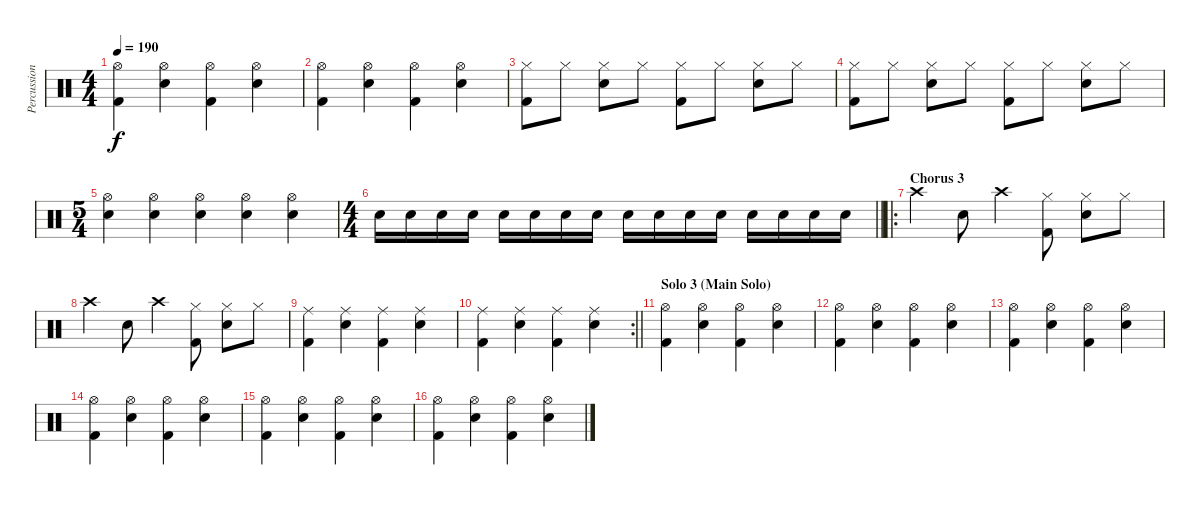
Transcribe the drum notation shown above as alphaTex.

\track ("Percussion" "Percussion") {instrument percussion}
\staff {score}
\articulation defaults
\ts (4 4)
\tempo 190
\clef neutral
\ks c
("Hi-Hat (open)" "Kick (hit) 2").4{dy f} ("Hi-Hat (open)" "Snare (hit) 2").4 ("Hi-Hat (open)" "Kick (hit) 2").4 ("Hi-Hat (open)" "Snare (hit) 2").4 |
("Hi-Hat (open)" "Kick (hit) 2").4 ("Hi-Hat (open)" "Snare (hit) 2").4 ("Hi-Hat (open)" "Kick (hit) 2").4 ("Hi-Hat (open)" "Snare (hit) 2").4 |
("Hi-Hat (closed)" "Kick (hit) 2").8 "Hi-Hat (closed)".8 ("Hi-Hat (closed)" "Snare (hit) 2").8 "Hi-Hat (closed)".8 ("Hi-Hat (closed)" "Kick (hit) 2").8 "Hi-Hat (closed)".8 ("Hi-Hat (closed)" "Snare (hit) 2").8 "Hi-Hat (closed)".8 |
("Hi-Hat (closed)" "Kick (hit) 2").8 "Hi-Hat (closed)".8 ("Hi-Hat (closed)" "Snare (hit) 2").8 "Hi-Hat (closed)".8 ("Hi-Hat (closed)" "Kick (hit) 2").8 "Hi-Hat (closed)".8 ("Hi-Hat (closed)" "Snare (hit) 2").8 "Hi-Hat (closed)".8 |
\ts (5 4)
("Hi-Hat (open)" "Snare (hit) 2").4 ("Hi-Hat (open)" "Snare (hit) 2").4 ("Hi-Hat (open)" "Snare (hit) 2").4 ("Hi-Hat (open)" "Snare (hit) 2").4 ("Hi-Hat (open)" "Snare (hit) 2").4 |
\ts (4 4)
\barLineRight lightlight "Snare (hit) 2".16 "Snare (hit) 2".16 "Snare (hit) 2".16 "Snare (hit) 2".16 "Snare (hit) 2".16 "Snare (hit) 2".16 "Snare (hit) 2".16 "Snare (hit) 2".16 "Snare (hit) 2".16 "Snare (hit) 2".16 "Snare (hit) 2".16 "Snare (hit) 2".16 "Snare (hit) 2".16 "Snare (hit) 2".16 "Snare (hit) 2".16 "Snare (hit) 2".16
|
\ro
\section ("" "Chorus 3")
"Crash high (hit)".4 "Snare (hit) 2".8 "Crash high (hit)".4 ("Hi-Hat (closed)" "Kick (hit) 2").8 ("Hi-Hat (closed)" "Snare (hit) 2").8 "Hi-Hat (closed)".8 |
"Crash high (hit)".4 "Snare (hit) 2".8 "Crash high (hit)".4 ("Hi-Hat (closed)" "Kick (hit) 2").8 ("Hi-Hat (closed)" "Snare (hit) 2").8 "Hi-Hat (closed)".8 |
("Ride (middle)" "Kick (hit) 2").4 ("Ride (middle)" "Snare (hit) 2").4 ("Ride (middle)" "Kick (hit) 2").4 ("Ride (middle)" "Snare (hit) 2").4 |
\rc 2
\barLineRight lightlight
("Ride (middle)" "Kick (hit) 2").4 ("Ride (middle)" "Snare (hit) 2").4 ("Ride (middle)" "Kick (hit) 2").4 ("Ride (middle)" "Snare (hit) 2").4 |
\section ("" "Solo 3 (Main Solo)")
("Hi-Hat (open)" "Kick (hit) 2").4 ("Hi-Hat (open)" "Snare (hit) 2").4 ("Hi-Hat (open)" "Kick (hit) 2").4 ("Hi-Hat (open)" "Snare (hit) 2").4 |
("Hi-Hat (open)" "Kick (hit) 2").4 ("Hi-Hat (open)" "Snare (hit) 2").4 ("Hi-Hat (open)" "Kick (hit) 2").4 ("Hi-Hat (open)" "Snare (hit) 2").4 |
("Hi-Hat (open)" "Kick (hit) 2").4 ("Hi-Hat (open)" "Snare (hit) 2").4 ("Hi-Hat (open)" "Kick (hit) 2").4 ("Hi-Hat (open)" "Snare (hit) 2").4 |
("Hi-Hat (open)" "Kick (hit) 2").4 ("Hi-Hat (open)" "Snare (hit) 2").4 ("Hi-Hat (open)" "Kick (hit) 2").4 ("Hi-Hat (open)" "Snare (hit) 2").4 |
("Hi-Hat (open)" "Kick (hit) 2").4 ("Hi-Hat (open)" "Snare (hit) 2").4 ("Hi-Hat (open)" "Kick (hit) 2").4 ("Hi-Hat (open)" "Snare (hit) 2").4 |
("Hi-Hat (open)" "Kick (hit) 2").4 ("Hi-Hat (open)" "Snare (hit) 2").4 ("Hi-Hat (open)" "Kick (hit) 2").4 ("Hi-Hat (open)" "Snare (hit) 2").4
